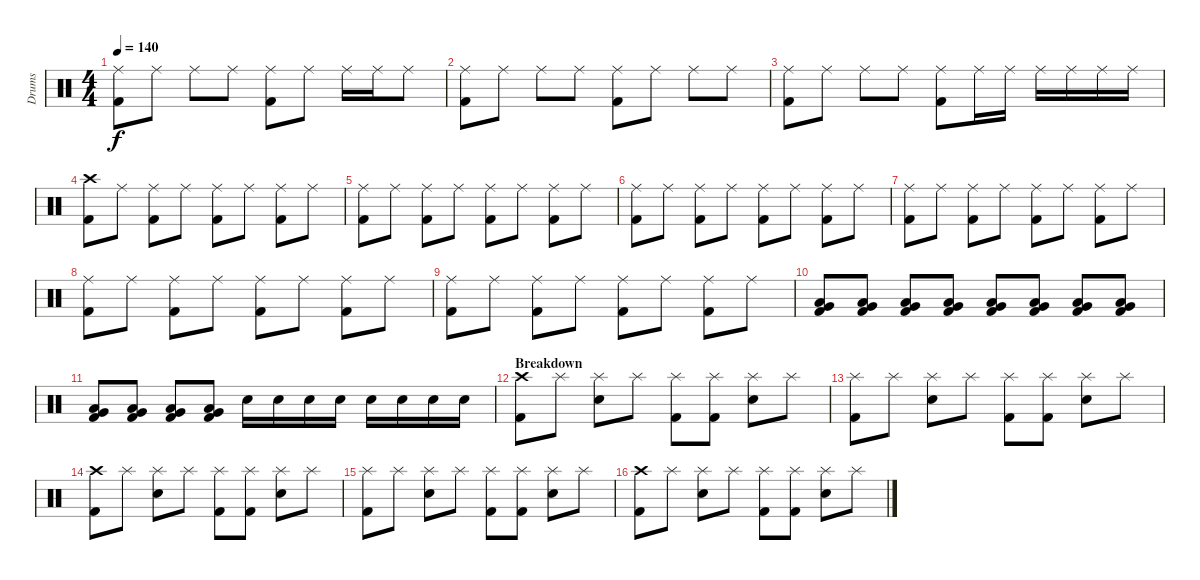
\track ("Drums" "Drums") {instrument percussion}
\staff {score}
\articulation defaults
\ts (4 4)
\tempo 140
\clef neutral
\ks c
("Ride (middle)" "Kick (hit) 2").8{dy f} "Ride (middle)".8 "Ride (middle)".8 "Ride (middle)".8 ("Ride (middle)" "Kick (hit) 2").8 "Ride (middle)".8 "Ride (middle)".16 "Ride (middle)".16 "Ride (middle)".8 |
("Ride (middle)" "Kick (hit) 2").8 "Ride (middle)".8 "Ride (middle)".8 "Ride (middle)".8 ("Ride (middle)" "Kick (hit) 2").8 "Ride (middle)".8 "Ride (middle)".8 "Ride (middle)".8 |
("Ride (middle)" "Kick (hit) 2").8 "Ride (middle)".8 "Ride (middle)".8 "Ride (middle)".8 ("Ride (middle)" "Kick (hit) 2").8 "Ride (middle)".16 "Ride (middle)".16 "Ride (middle)".16 "Ride (middle)".16 "Ride (middle)".16 "Ride (middle)".16 |
("Crash high (hit)" "Kick (hit) 2").8 "Ride (middle)".8 ("Ride (middle)" "Kick (hit) 2").8 "Ride (middle)".8 ("Ride (middle)" "Kick (hit) 2").8 "Ride (middle)".8 ("Ride (middle)" "Kick (hit) 2").8 "Ride (middle)".8 |
("Ride (middle)" "Kick (hit) 2").8 "Ride (middle)".8 ("Ride (middle)" "Kick (hit) 2").8 "Ride (middle)".8 ("Ride (middle)" "Kick (hit) 2").8 "Ride (middle)".8 ("Ride (middle)" "Kick (hit) 2").8 "Ride (middle)".8 |
("Ride (middle)" "Kick (hit) 2").8 "Ride (middle)".8 ("Ride (middle)" "Kick (hit) 2").8 "Ride (middle)".8 ("Ride (middle)" "Kick (hit) 2").8 "Ride (middle)".8 ("Ride (middle)" "Kick (hit) 2").8 "Ride (middle)".8 |
("Ride (middle)" "Kick (hit) 2").8 "Ride (middle)".8 ("Ride (middle)" "Kick (hit) 2").8 "Ride (middle)".8 ("Ride (middle)" "Kick (hit) 2").8 "Ride (middle)".8 ("Ride (middle)" "Kick (hit) 2").8 "Ride (middle)".8 |
("Ride (middle)" "Kick (hit) 2").8 "Ride (middle)".8 ("Ride (middle)" "Kick (hit) 2").8 "Ride (middle)".8 ("Ride (middle)" "Kick (hit) 2").8 "Ride (middle)".8 ("Ride (middle)" "Kick (hit) 2").8 "Ride (middle)".8 |
("Ride (middle)" "Kick (hit) 2").8 "Ride (middle)".8 ("Ride (middle)" "Kick (hit) 2").8 "Ride (middle)".8 ("Ride (middle)" "Kick (hit) 2").8 "Ride (middle)".8 ("Ride (middle)" "Kick (hit) 2").8 "Ride (middle)".8 |
("Low Tom (hit)" "Very Low Tom (hit)" "Kick (hit) 2").8 ("Low Tom (hit)" "Very Low Tom (hit)" "Kick (hit) 2").8 ("Low Tom (hit)" "Very Low Tom (hit)" "Kick (hit) 2").8 ("Low Tom (hit)" "Very Low Tom (hit)" "Kick (hit) 2").8 ("Low Tom (hit)" "Very Low Tom (hit)" "Kick (hit) 2").8 ("Low Tom (hit)" "Very Low Tom (hit)" "Kick (hit) 2").8 ("Low Tom (hit)" "Very Low Tom (hit)" "Kick (hit) 2").8 ("Low Tom (hit)" "Very Low Tom (hit)" "Kick (hit) 2").8 |
("Low Tom (hit)" "Very Low Tom (hit)" "Kick (hit) 2").8 ("Low Tom (hit)" "Very Low Tom (hit)" "Kick (hit) 2").8 ("Low Tom (hit)" "Very Low Tom (hit)" "Kick (hit) 2").8 ("Low Tom (hit)" "Very Low Tom (hit)" "Kick (hit) 2").8 "Snare (hit) 2".16 "Snare (hit) 2".16 "Snare (hit) 2".16 "Snare (hit) 2".16 "Snare (hit) 2".16 "Snare (hit) 2".16 "Snare (hit) 2".16 "Snare (hit) 2".16 |
\section ("" "Breakdown")
("Crash high (hit)" "Kick (hit) 2").8 "Splash (hit)".8 ("Splash (hit)" "Snare (hit) 2").8 "Splash (hit)".8 ("Splash (hit)" "Kick (hit) 2").8 ("Splash (hit)" "Kick (hit) 2").8 ("Splash (hit)" "Snare (hit) 2").8 "Splash (hit)".8 |
("Splash (hit)" "Kick (hit) 2").8 "Splash (hit)".8 ("Splash (hit)" "Snare (hit) 2").8 "Splash (hit)".8 ("Splash (hit)" "Kick (hit) 2").8 ("Splash (hit)" "Kick (hit) 2").8 ("Splash (hit)" "Snare (hit) 2").8 "Splash (hit)".8 |
("Crash high (hit)" "Kick (hit) 2").8 "Splash (hit)".8 ("Splash (hit)" "Snare (hit) 2").8 "Splash (hit)".8 ("Splash (hit)" "Kick (hit) 2").8 ("Splash (hit)" "Kick (hit) 2").8 ("Splash (hit)" "Snare (hit) 2").8 "Splash (hit)".8 |
("Splash (hit)" "Kick (hit) 2").8 "Splash (hit)".8 ("Splash (hit)" "Snare (hit) 2").8 "Splash (hit)".8 ("Splash (hit)" "Kick (hit) 2").8 ("Splash (hit)" "Kick (hit) 2").8 ("Splash (hit)" "Snare (hit) 2").8 "Splash (hit)".8 |
("Crash high (hit)" "Kick (hit) 2").8 "Splash (hit)".8 ("Splash (hit)" "Snare (hit) 2").8 "Splash (hit)".8 ("Splash (hit)" "Kick (hit) 2").8 ("Splash (hit)" "Kick (hit) 2").8 ("Splash (hit)" "Snare (hit) 2").8 "Splash (hit)".8
